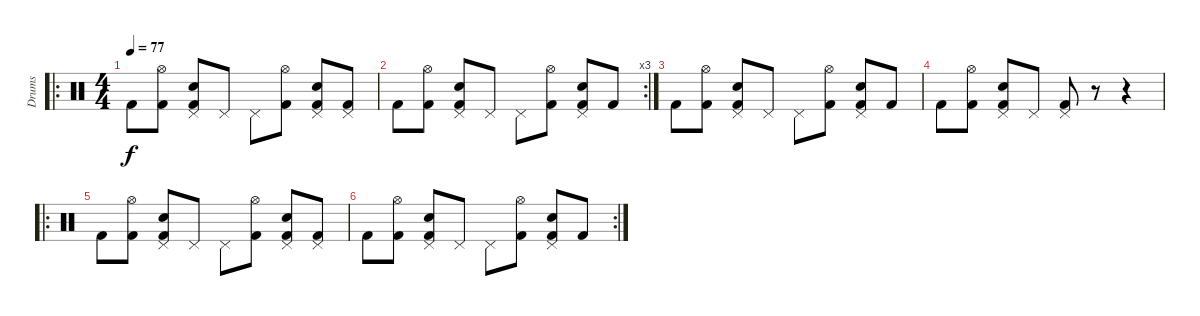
\track ("Drums" "Drums") {instrument percussion}
\staff {score}
\articulation defaults
\ro
\ts (4 4)
\tempo 77
\clef neutral
\ks c "Kick (hit) 2".8{dy f}
("Hi-Hat (open)" "Kick (hit) 2").8 ("Pedal Hi-Hat (hit)" "Snare (hit) 2" "Kick (hit) 2").8 "Pedal Hi-Hat (hit)".8 "Pedal Hi-Hat (hit)".8 ("Hi-Hat (open)" "Kick (hit) 2").8 ("Pedal Hi-Hat (hit)" "Snare (hit) 2" "Kick (hit) 2").8 ("Pedal Hi-Hat (hit)" "Kick (hit) 2").8 |
\rc 3 "Kick (hit) 2".8
("Hi-Hat (open)" "Kick (hit) 2").8 ("Pedal Hi-Hat (hit)" "Snare (hit) 2" "Kick (hit) 2").8 "Pedal Hi-Hat (hit)".8 "Pedal Hi-Hat (hit)".8 ("Hi-Hat (open)" "Kick (hit) 2").8 ("Pedal Hi-Hat (hit)" "Snare (hit) 2" "Kick (hit) 2").8 "Kick (hit) 2".8 |
"Kick (hit) 2".8 ("Hi-Hat (open)" "Kick (hit) 2").8 ("Pedal Hi-Hat (hit)" "Snare (hit) 2" "Kick (hit) 2").8 "Pedal Hi-Hat (hit)".8 "Pedal Hi-Hat (hit)".8 ("Hi-Hat (open)" "Kick (hit) 2").8 ("Pedal Hi-Hat (hit)" "Snare (hit) 2" "Kick (hit) 2").8 "Kick (hit) 2".8 |
"Kick (hit) 2".8 ("Hi-Hat (open)" "Kick (hit) 2").8 ("Pedal Hi-Hat (hit)" "Snare (hit) 2" "Kick (hit) 2").8 "Pedal Hi-Hat (hit)".8 ("Pedal Hi-Hat (hit)" "Kick (hit) 2").8 r.8 r.4 |
\ro "Kick (hit) 2".8
("Hi-Hat (open)" "Kick (hit) 2").8 ("Pedal Hi-Hat (hit)" "Snare (hit) 2" "Kick (hit) 2").8 "Pedal Hi-Hat (hit)".8 "Pedal Hi-Hat (hit)".8 ("Hi-Hat (open)" "Kick (hit) 2").8 ("Pedal Hi-Hat (hit)" "Snare (hit) 2" "Kick (hit) 2").8 ("Pedal Hi-Hat (hit)" "Kick (hit) 2").8 |
\rc 2 "Kick (hit) 2".8
("Hi-Hat (open)" "Kick (hit) 2").8 ("Pedal Hi-Hat (hit)" "Snare (hit) 2" "Kick (hit) 2").8 "Pedal Hi-Hat (hit)".8 "Pedal Hi-Hat (hit)".8 ("Hi-Hat (open)" "Kick (hit) 2").8 ("Pedal Hi-Hat (hit)" "Snare (hit) 2" "Kick (hit) 2").8 "Kick (hit) 2".8
